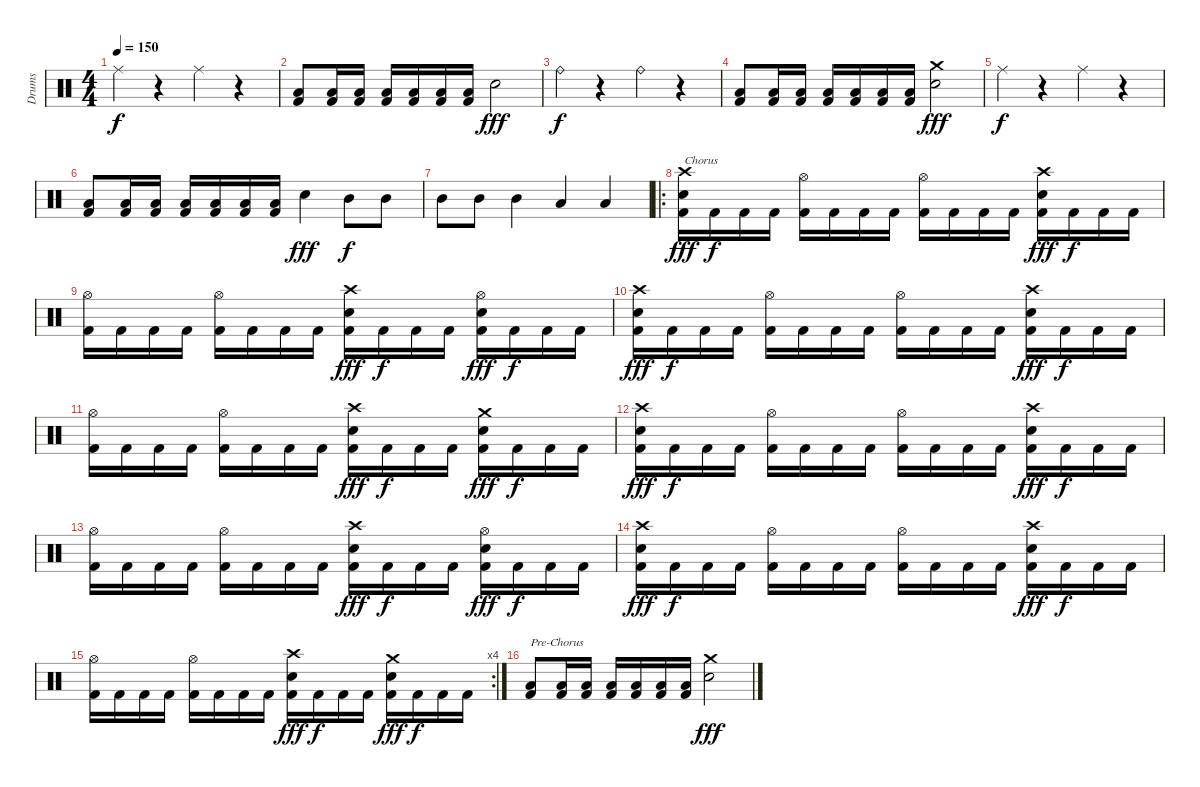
\track ("Drums" "Drums") {instrument percussion}
\staff {score}
\articulation defaults
\ts (4 4)
\tempo 150
\clef neutral
\ks c "Ride (middle)".4{dy f}
r.4 "Ride (middle)".4 r.4 |
("Low Floor Tom (hit)" "Kick (hit) 2").8 ("Low Floor Tom (hit)" "Kick (hit) 2").16 ("Low Floor Tom (hit)" "Kick (hit) 2").16 ("Low Floor Tom (hit)" "Kick (hit) 2").16 ("Low Floor Tom (hit)" "Kick (hit) 2").16 ("Low Floor Tom (hit)" "Kick (hit) 2").16 ("Low Floor Tom (hit)" "Kick (hit) 2").16 "Snare (hit) 2".2{dy fff} |
"Ride (bell)".4{dy f} r.4 "Ride (bell)".4 r.4 |
("Low Floor Tom (hit)" "Kick (hit) 2").8 ("Low Floor Tom (hit)" "Kick (hit) 2").16 ("Low Floor Tom (hit)" "Kick (hit) 2").16 ("Low Floor Tom (hit)" "Kick (hit) 2").16 ("Low Floor Tom (hit)" "Kick (hit) 2").16 ("Low Floor Tom (hit)" "Kick (hit) 2").16 ("Low Floor Tom (hit)" "Kick (hit) 2").16 ("Crash medium (hit)" "Snare (hit) 2").2{dy fff} |
"Ride (middle)".4{dy f} r.4 "Ride (middle)".4 r.4 |
("Low Floor Tom (hit)" "Kick (hit) 2").8 ("Low Floor Tom (hit)" "Kick (hit) 2").16 ("Low Floor Tom (hit)" "Kick (hit) 2").16 ("Low Floor Tom (hit)" "Kick (hit) 2").16 ("Low Floor Tom (hit)" "Kick (hit) 2").16 ("Low Floor Tom (hit)" "Kick (hit) 2").16 ("Low Floor Tom (hit)" "Kick (hit) 2").16 "Snare (hit) 2".4{dy fff} "Mid Tom (hit)".8{dy f} "Mid Tom (hit)".8 |
"Mid Tom (hit)".8 "Mid Tom (hit)".8 "Mid Tom (hit)".4 "Low Tom (hit)".4 "Low Floor Tom (hit)".4 |
\ro
("Crash high (hit)" "Snare (hit) 2" "Kick (hit) 2").16{txt "Chorus" dy fff} "Kick (hit) 2".16{dy f} "Kick (hit) 2".16 "Kick (hit) 2".16 ("Hi-Hat (open)" "Kick (hit) 2").16 "Kick (hit) 2".16 "Kick (hit) 2".16 "Kick (hit) 2".16 ("Hi-Hat (open)" "Kick (hit) 2").16 "Kick (hit) 2".16 "Kick (hit) 2".16 "Kick (hit) 2".16 ("Crash high (hit)" "Snare (hit) 2" "Kick (hit) 2").16{dy fff} "Kick (hit) 2".16{dy f} "Kick (hit) 2".16 "Kick (hit) 2".16 |
("Hi-Hat (open)" "Kick (hit) 2").16 "Kick (hit) 2".16 "Kick (hit) 2".16 "Kick (hit) 2".16 ("Hi-Hat (open)" "Kick (hit) 2").16 "Kick (hit) 2".16 "Kick (hit) 2".16 "Kick (hit) 2".16 ("Crash high (hit)" "Snare (hit) 2" "Kick (hit) 2").16{dy fff} "Kick (hit) 2".16{dy f} "Kick (hit) 2".16 "Kick (hit) 2".16 ("Hi-Hat (open)" "Snare (hit) 2" "Kick (hit) 2").16{dy fff} "Kick (hit) 2".16{dy f} "Kick (hit) 2".16 "Kick (hit) 2".16 |
("Crash high (hit)" "Snare (hit) 2" "Kick (hit) 2").16{dy fff} "Kick (hit) 2".16{dy f} "Kick (hit) 2".16 "Kick (hit) 2".16 ("Hi-Hat (open)" "Kick (hit) 2").16 "Kick (hit) 2".16 "Kick (hit) 2".16 "Kick (hit) 2".16 ("Hi-Hat (open)" "Kick (hit) 2").16 "Kick (hit) 2".16 "Kick (hit) 2".16 "Kick (hit) 2".16 ("Crash high (hit)" "Snare (hit) 2" "Kick (hit) 2").16{dy fff} "Kick (hit) 2".16{dy f} "Kick (hit) 2".16 "Kick (hit) 2".16 |
("Hi-Hat (open)" "Kick (hit) 2").16 "Kick (hit) 2".16 "Kick (hit) 2".16 "Kick (hit) 2".16 ("Hi-Hat (open)" "Kick (hit) 2").16 "Kick (hit) 2".16 "Kick (hit) 2".16 "Kick (hit) 2".16 ("Crash high (hit)" "Snare (hit) 2" "Kick (hit) 2").16{dy fff} "Kick (hit) 2".16{dy f} "Kick (hit) 2".16 "Kick (hit) 2".16 ("Crash medium (hit)" "Snare (hit) 2" "Kick (hit) 2").16{dy fff} "Kick (hit) 2".16{dy f} "Kick (hit) 2".16 "Kick (hit) 2".16 |
("Crash high (hit)" "Snare (hit) 2" "Kick (hit) 2").16{dy fff} "Kick (hit) 2".16{dy f} "Kick (hit) 2".16 "Kick (hit) 2".16 ("Hi-Hat (open)" "Kick (hit) 2").16 "Kick (hit) 2".16 "Kick (hit) 2".16 "Kick (hit) 2".16 ("Hi-Hat (open)" "Kick (hit) 2").16 "Kick (hit) 2".16 "Kick (hit) 2".16 "Kick (hit) 2".16 ("Crash high (hit)" "Snare (hit) 2" "Kick (hit) 2").16{dy fff} "Kick (hit) 2".16{dy f} "Kick (hit) 2".16 "Kick (hit) 2".16 |
("Hi-Hat (open)" "Kick (hit) 2").16 "Kick (hit) 2".16 "Kick (hit) 2".16 "Kick (hit) 2".16 ("Hi-Hat (open)" "Kick (hit) 2").16 "Kick (hit) 2".16 "Kick (hit) 2".16 "Kick (hit) 2".16 ("Crash high (hit)" "Snare (hit) 2" "Kick (hit) 2").16{dy fff} "Kick (hit) 2".16{dy f} "Kick (hit) 2".16 "Kick (hit) 2".16 ("Hi-Hat (open)" "Snare (hit) 2" "Kick (hit) 2").16{dy fff} "Kick (hit) 2".16{dy f} "Kick (hit) 2".16 "Kick (hit) 2".16 |
("Crash high (hit)" "Snare (hit) 2" "Kick (hit) 2").16{dy fff} "Kick (hit) 2".16{dy f} "Kick (hit) 2".16 "Kick (hit) 2".16 ("Hi-Hat (open)" "Kick (hit) 2").16 "Kick (hit) 2".16 "Kick (hit) 2".16 "Kick (hit) 2".16 ("Hi-Hat (open)" "Kick (hit) 2").16 "Kick (hit) 2".16 "Kick (hit) 2".16 "Kick (hit) 2".16 ("Crash high (hit)" "Snare (hit) 2" "Kick (hit) 2").16{dy fff} "Kick (hit) 2".16{dy f} "Kick (hit) 2".16 "Kick (hit) 2".16 |
\rc 4
("Hi-Hat (open)" "Kick (hit) 2").16 "Kick (hit) 2".16 "Kick (hit) 2".16 "Kick (hit) 2".16 ("Hi-Hat (open)" "Kick (hit) 2").16 "Kick (hit) 2".16 "Kick (hit) 2".16 "Kick (hit) 2".16 ("Crash high (hit)" "Snare (hit) 2" "Kick (hit) 2").16{dy fff} "Kick (hit) 2".16{dy f} "Kick (hit) 2".16 "Kick (hit) 2".16 ("Crash medium (hit)" "Snare (hit) 2" "Kick (hit) 2").16{dy fff} "Kick (hit) 2".16{dy f} "Kick (hit) 2".16 "Kick (hit) 2".16 |
("Low Floor Tom (hit)" "Kick (hit) 2").8{txt "Pre-Chorus"} ("Low Floor Tom (hit)" "Kick (hit) 2").16 ("Low Floor Tom (hit)" "Kick (hit) 2").16 ("Low Floor Tom (hit)" "Kick (hit) 2").16 ("Low Floor Tom (hit)" "Kick (hit) 2").16 ("Low Floor Tom (hit)" "Kick (hit) 2").16 ("Low Floor Tom (hit)" "Kick (hit) 2").16 ("Crash medium (hit)" "Snare (hit) 2").2{dy fff}
